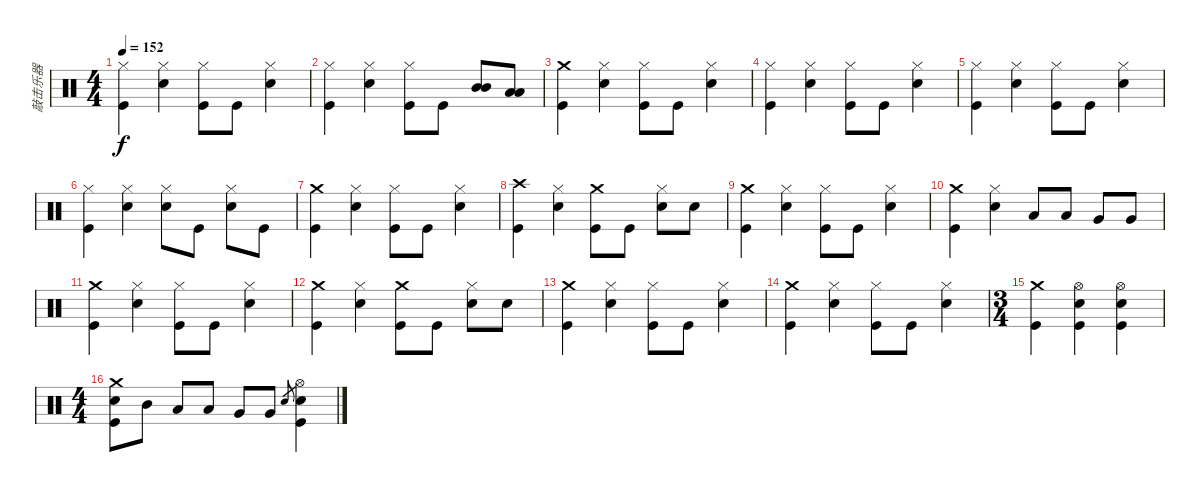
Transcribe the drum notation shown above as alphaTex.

\track ("敲击乐器" "敲击乐器") {instrument percussion}
\staff {score}
\articulation defaults
\ts (4 4)
\tempo 152
\clef neutral
\ks c
("Hi-Hat (closed)" "Kick (hit)").4{dy f} ("Hi-Hat (closed)" "Electric Snare (hit)").4 ("Hi-Hat (closed)" "Kick (hit)").8 "Kick (hit)".8 ("Hi-Hat (closed)" "Electric Snare (hit)").4 |
("Hi-Hat (closed)" "Kick (hit)").4 ("Hi-Hat (closed)" "Electric Snare (hit)").4 ("Hi-Hat (closed)" "Kick (hit)").8 "Kick (hit)".8 ("Mid Tom (hit)" "Mid Tom (hit)").8 ("Low Tom (hit)" "Low Tom (hit)").8 |
("Crash medium (hit)" "Kick (hit)").4 ("Hi-Hat (closed)" "Electric Snare (hit)").4 ("Hi-Hat (closed)" "Kick (hit)").8 "Kick (hit)".8 ("Hi-Hat (closed)" "Electric Snare (hit)").4 |
("Hi-Hat (closed)" "Kick (hit)").4 ("Hi-Hat (closed)" "Electric Snare (hit)").4 ("Hi-Hat (closed)" "Kick (hit)").8 "Kick (hit)".8 ("Hi-Hat (closed)" "Electric Snare (hit)").4 |
("Hi-Hat (closed)" "Kick (hit)").4 ("Hi-Hat (closed)" "Electric Snare (hit)").4 ("Hi-Hat (closed)" "Kick (hit)").8 "Kick (hit)".8 ("Hi-Hat (closed)" "Electric Snare (hit)").4 |
("Hi-Hat (closed)" "Kick (hit)").4 ("Hi-Hat (closed)" "Electric Snare (hit)").4 ("Hi-Hat (closed)" "Electric Snare (hit)").8 "Kick (hit)".8 ("Hi-Hat (closed)" "Electric Snare (hit)").8 "Kick (hit)".8 |
("Crash medium (hit)" "Kick (hit)").4 ("Hi-Hat (closed)" "Electric Snare (hit)").4 ("Hi-Hat (closed)" "Kick (hit)").8 "Kick (hit)".8 ("Hi-Hat (closed)" "Electric Snare (hit)").4 |
("Crash high (hit)" "Kick (hit)").4 ("Hi-Hat (closed)" "Electric Snare (hit)").4 ("Crash medium (hit)" "Kick (hit)").8 "Kick (hit)".8 ("Hi-Hat (closed)" "Electric Snare (hit)").8 "Electric Snare (hit)".8 |
("Crash medium (hit)" "Kick (hit)").4 ("Hi-Hat (closed)" "Electric Snare (hit)").4 ("Hi-Hat (closed)" "Kick (hit)").8 "Kick (hit)".8 ("Hi-Hat (closed)" "Electric Snare (hit)").4 |
("Crash medium (hit)" "Kick (hit)").4 ("Hi-Hat (closed)" "Electric Snare (hit)").4 "Low Tom (hit)".8 "Low Tom (hit)".8 "Very Low Tom (hit)".8 "Very Low Tom (hit)".8 |
("Crash medium (hit)" "Kick (hit)").4 ("Hi-Hat (closed)" "Electric Snare (hit)").4 ("Hi-Hat (closed)" "Kick (hit)").8 "Kick (hit)".8 ("Hi-Hat (closed)" "Electric Snare (hit)").4 |
("Crash medium (hit)" "Kick (hit)").4 ("Hi-Hat (closed)" "Electric Snare (hit)").4 ("Crash medium (hit)" "Kick (hit)").8 "Kick (hit)".8 ("Hi-Hat (closed)" "Electric Snare (hit)").8 "Electric Snare (hit)".8 |
("Crash medium (hit)" "Kick (hit)").4 ("Hi-Hat (closed)" "Electric Snare (hit)").4 ("Hi-Hat (closed)" "Kick (hit)").8 "Kick (hit)".8 ("Hi-Hat (closed)" "Electric Snare (hit)").4 |
("Crash medium (hit)" "Kick (hit)").4 ("Hi-Hat (closed)" "Electric Snare (hit)").4 ("Hi-Hat (closed)" "Kick (hit)").8 "Kick (hit)".8 ("Hi-Hat (closed)" "Electric Snare (hit)").4 |
\ts (3 4)
("Crash medium (hit)" "Kick (hit)").4 ("Hi-Hat (open)" "Electric Snare (hit)" "Kick (hit)").4 ("Hi-Hat (open)" "Electric Snare (hit)" "Kick (hit)").4 |
\ts (4 4)
("Crash medium (hit)" "Electric Snare (hit)" "Kick (hit)").8 "Mid Tom (hit)".8 "Low Tom (hit)".8 "Low Tom (hit)".8 "Very Low Tom (hit)".8 "Very Low Tom (hit)".8 "Electric Snare (hit)".8{gr} ("Hi-Hat (open)" "Electric Snare (hit)" "Kick (hit)").4
